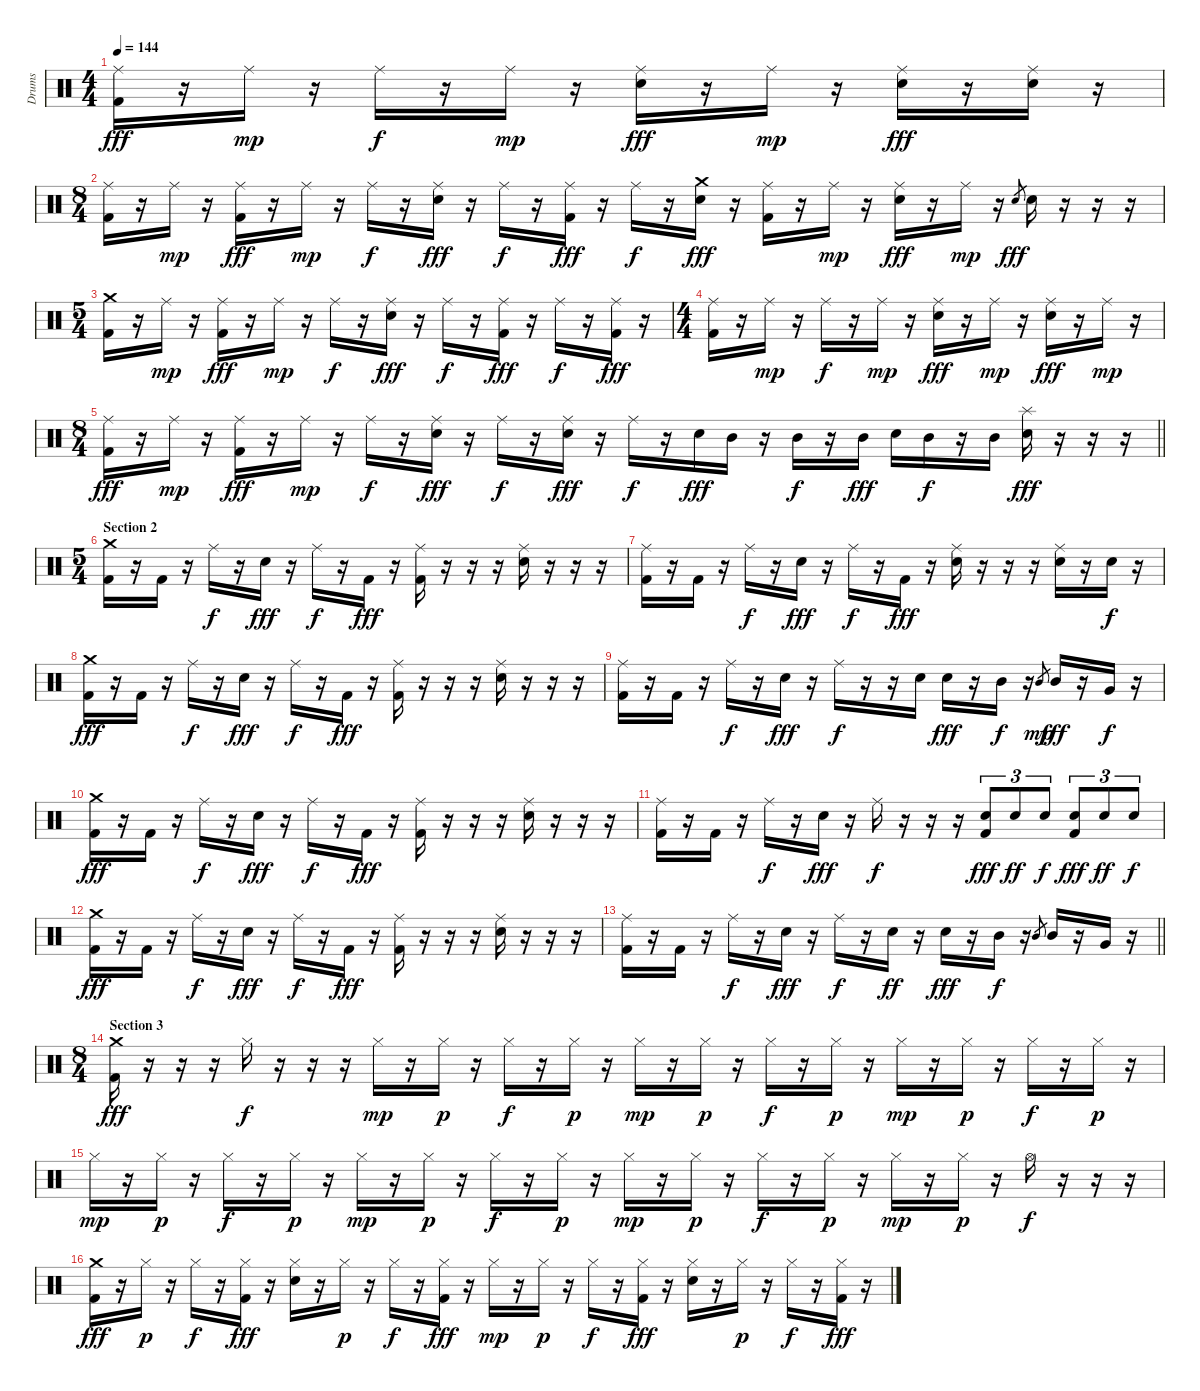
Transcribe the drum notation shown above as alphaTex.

\track ("Drums" "Drums") {instrument percussion}
\staff {score}
\articulation defaults
\ts (4 4)
\tempo 144
\clef neutral
\ks c
("Ride (middle)" "Kick (hit) 2").16{dy fff} r.16 "Ride (middle)".16{dy mp} r.16 "Ride (middle)".16{dy f} r.16 "Ride (middle)".16{dy mp} r.16 ("Ride (middle)" "Electric Snare (hit)").16{dy fff} r.16 "Ride (middle)".16{dy mp} r.16 ("Ride (middle)" "Electric Snare (hit)").16{dy fff} r.16 ("Ride (middle)" "Electric Snare (hit)").16 r.16 |
\ts (8 4)
("Ride (middle)" "Kick (hit) 2").16 r.16 "Ride (middle)".16{dy mp} r.16 ("Ride (middle)" "Kick (hit) 2").16{dy fff} r.16 "Ride (middle)".16{dy mp} r.16 "Ride (middle)".16{dy f} r.16 ("Ride (middle)" "Electric Snare (hit)").16{dy fff} r.16 "Ride (middle)".16{dy f} r.16 ("Ride (middle)" "Kick (hit) 2").16{dy fff} r.16 "Ride (middle)".16{dy f} r.16 ("Crash medium (hit)" "Electric Snare (hit)").16{dy fff} r.16 ("Ride (middle)" "Kick (hit) 2").16 r.16 "Ride (middle)".16{dy mp} r.16 ("Ride (middle)" "Electric Snare (hit)").16{dy fff} r.16 "Ride (middle)".16{dy mp} r.16 "Electric Snare (hit)".8{gr dy fff} "Electric Snare (hit)".16 r.16 r.16 r.16 |
\ts (5 4)
("Crash medium (hit)" "Kick (hit) 2").16 r.16 "Ride (middle)".16{dy mp} r.16 ("Ride (middle)" "Kick (hit) 2").16{dy fff} r.16 "Ride (middle)".16{dy mp} r.16 "Ride (middle)".16{dy f} r.16 ("Ride (middle)" "Electric Snare (hit)").16{dy fff} r.16 "Ride (middle)".16{dy f} r.16 ("Ride (middle)" "Kick (hit) 2").16{dy fff} r.16 "Ride (middle)".16{dy f} r.16 ("Ride (middle)" "Kick (hit) 2").16{dy fff} r.16 |
\ts (4 4)
("Ride (middle)" "Kick (hit) 2").16 r.16 "Ride (middle)".16{dy mp} r.16 "Ride (middle)".16{dy f} r.16 "Ride (middle)".16{dy mp} r.16 ("Ride (middle)" "Electric Snare (hit)").16{dy fff} r.16 "Ride (middle)".16{dy mp} r.16 ("Ride (middle)" "Electric Snare (hit)").16{dy fff} r.16 "Ride (middle)".16{dy mp} r.16 |
\ts (8 4)
\barLineRight lightlight
("Ride (middle)" "Kick (hit) 2").16{dy fff} r.16 "Ride (middle)".16{dy mp} r.16 ("Ride (middle)" "Kick (hit) 2").16{dy fff} r.16 "Ride (middle)".16{dy mp} r.16 "Ride (middle)".16{dy f} r.16 ("Ride (middle)" "Electric Snare (hit)").16{dy fff} r.16 "Ride (middle)".16{dy f} r.16 ("Ride (middle)" "Electric Snare (hit)").16{dy fff} r.16 "Ride (middle)".16{dy f} r.16 "Electric Snare (hit)".16{dy fff} "Mid Tom (hit)".16 r.16 "Mid Tom (hit)".16{dy f} r.16 "Mid Tom (hit)".16{dy fff} "Electric Snare (hit)".16 "Mid Tom (hit)".16{dy f} r.16 "Mid Tom (hit)".16 ("Splash (hit)" "Electric Snare (hit)").16{dy fff} r.16 r.16 r.16 |
\ts (5 4)
\section ("" "Section 2")
("Crash medium (hit)" "Kick (hit) 2").16 r.16 "Kick (hit) 2".16 r.16 "Ride (middle)".16{dy f} r.16 "Electric Snare (hit)".16{dy fff} r.16 "Ride (middle)".16{dy f} r.16 "Kick (hit) 2".16{dy fff} r.16 ("Ride (middle)" "Kick (hit) 2").16 r.16 r.16 r.16 ("Ride (middle)" "Electric Snare (hit)").16 r.16 r.16 r.16 |
("Ride (middle)" "Kick (hit) 2").16 r.16 "Kick (hit) 2".16 r.16 "Ride (middle)".16{dy f} r.16 "Electric Snare (hit)".16{dy fff} r.16 "Ride (middle)".16{dy f} r.16 "Kick (hit) 2".16{dy fff} r.16 ("Ride (middle)" "Electric Snare (hit)").16 r.16 r.16 r.16 ("Ride (middle)" "Electric Snare (hit)").16 r.16 "Electric Snare (hit)".16{dy f} r.16 |
("Crash medium (hit)" "Kick (hit) 2").16{dy fff} r.16 "Kick (hit) 2".16 r.16 "Ride (middle)".16{dy f} r.16 "Electric Snare (hit)".16{dy fff} r.16 "Ride (middle)".16{dy f} r.16 "Kick (hit) 2".16{dy fff} r.16 ("Ride (middle)" "Kick (hit) 2").16 r.16 r.16 r.16 ("Ride (middle)" "Electric Snare (hit)").16 r.16 r.16 r.16 |
("Ride (middle)" "Kick (hit) 2").16 r.16 "Kick (hit) 2".16 r.16 "Ride (middle)".16{dy f} r.16 "Electric Snare (hit)".16{dy fff} r.16 "Ride (middle)".16{dy f} r.16 r.16 "Electric Snare (hit)".16 "Electric Snare (hit)".16{dy fff} r.16 "Mid Tom (hit)".16{dy f} r.16 "Mid Tom (hit)".8{gr dy mp} "Mid Tom (hit)".16{dy fff} r.16 "Very Low Tom (hit)".16{dy f} r.16 |
("Crash medium (hit)" "Kick (hit) 2").16{dy fff} r.16 "Kick (hit) 2".16 r.16 "Ride (middle)".16{dy f} r.16 "Electric Snare (hit)".16{dy fff} r.16 "Ride (middle)".16{dy f} r.16 "Kick (hit) 2".16{dy fff} r.16 ("Ride (middle)" "Kick (hit) 2").16 r.16 r.16 r.16 ("Ride (middle)" "Electric Snare (hit)").16 r.16 r.16 r.16 |
("Ride (middle)" "Kick (hit) 2").16 r.16 "Kick (hit) 2".16 r.16 "Ride (middle)".16{dy f} r.16 "Electric Snare (hit)".16{dy fff} r.16 "Ride (middle)".16{dy f} r.16 r.16 r.16 ("Electric Snare (hit)" "Kick (hit) 2").8{tu (3 2) dy fff} "Electric Snare (hit)".8{tu (3 2) dy ff} "Electric Snare (hit)".8{tu (3 2) dy f} ("Electric Snare (hit)" "Kick (hit) 2").8{tu (3 2) dy fff} "Electric Snare (hit)".8{tu (3 2) dy ff} "Electric Snare (hit)".8{tu (3 2) dy f} |
("Crash medium (hit)" "Kick (hit) 2").16{dy fff} r.16 "Kick (hit) 2".16 r.16 "Ride (middle)".16{dy f} r.16 "Electric Snare (hit)".16{dy fff} r.16 "Ride (middle)".16{dy f} r.16 "Kick (hit) 2".16{dy fff} r.16 ("Ride (middle)" "Kick (hit) 2").16 r.16 r.16 r.16 ("Ride (middle)" "Electric Snare (hit)").16 r.16 r.16 r.16 |
\barLineRight lightlight
("Ride (middle)" "Kick (hit) 2").16 r.16 "Kick (hit) 2".16 r.16 "Ride (middle)".16{dy f} r.16 "Electric Snare (hit)".16{dy fff} r.16 "Ride (middle)".16{dy f} r.16 "Electric Snare (hit)".16{dy ff} r.16 "Electric Snare (hit)".16{dy fff} r.16 "Mid Tom (hit)".16{dy f} r.16 "Mid Tom (hit)".8{gr} "Mid Tom (hit)".16 r.16 "Very Low Tom (hit)".16 r.16 |
\ts (8 4)
\section ("" "Section 3")
("Crash medium (hit)" "Kick (hit) 2").16{dy fff} r.16 r.16 r.16 "Hi-Hat (closed)".16{dy f} r.16 r.16 r.16 "Hi-Hat (closed)".16{dy mp} r.16 "Hi-Hat (closed)".16{dy p} r.16 "Hi-Hat (closed)".16{dy f} r.16 "Hi-Hat (closed)".16{dy p} r.16 "Hi-Hat (closed)".16{dy mp} r.16 "Hi-Hat (closed)".16{dy p} r.16 "Hi-Hat (closed)".16{dy f} r.16 "Hi-Hat (closed)".16{dy p} r.16 "Hi-Hat (closed)".16{dy mp} r.16 "Hi-Hat (closed)".16{dy p} r.16 "Hi-Hat (closed)".16{dy f} r.16 "Hi-Hat (closed)".16{dy p} r.16 |
"Hi-Hat (closed)".16{dy mp} r.16 "Hi-Hat (closed)".16{dy p} r.16 "Hi-Hat (closed)".16{dy f} r.16 "Hi-Hat (closed)".16{dy p} r.16 "Hi-Hat (closed)".16{dy mp} r.16 "Hi-Hat (closed)".16{dy p} r.16 "Hi-Hat (closed)".16{dy f} r.16 "Hi-Hat (closed)".16{dy p} r.16 "Hi-Hat (closed)".16{dy mp} r.16 "Hi-Hat (closed)".16{dy p} r.16 "Hi-Hat (closed)".16{dy f} r.16 "Hi-Hat (closed)".16{dy p} r.16 "Hi-Hat (closed)".16{dy mp} r.16 "Hi-Hat (closed)".16{dy p} r.16 "Hi-Hat (open)".16{dy f} r.16 r.16 r.16 |
("Crash medium (hit)" "Kick (hit) 2").16{dy fff} r.16 "Hi-Hat (closed)".16{dy p} r.16 "Hi-Hat (closed)".16{dy f} r.16 ("Hi-Hat (closed)" "Kick (hit) 2").16{dy fff} r.16 ("Hi-Hat (closed)" "Electric Snare (hit)").16 r.16 "Hi-Hat (closed)".16{dy p} r.16 "Hi-Hat (closed)".16{dy f} r.16 ("Hi-Hat (closed)" "Kick (hit) 2").16{dy fff} r.16 "Hi-Hat (closed)".16{dy mp} r.16 "Hi-Hat (closed)".16{dy p} r.16 "Hi-Hat (closed)".16{dy f} r.16 ("Hi-Hat (closed)" "Kick (hit) 2").16{dy fff} r.16 ("Hi-Hat (closed)" "Electric Snare (hit)").16 r.16 "Hi-Hat (closed)".16{dy p} r.16 "Hi-Hat (closed)".16{dy f} r.16 ("Hi-Hat (closed)" "Kick (hit) 2").16{dy fff} r.16
